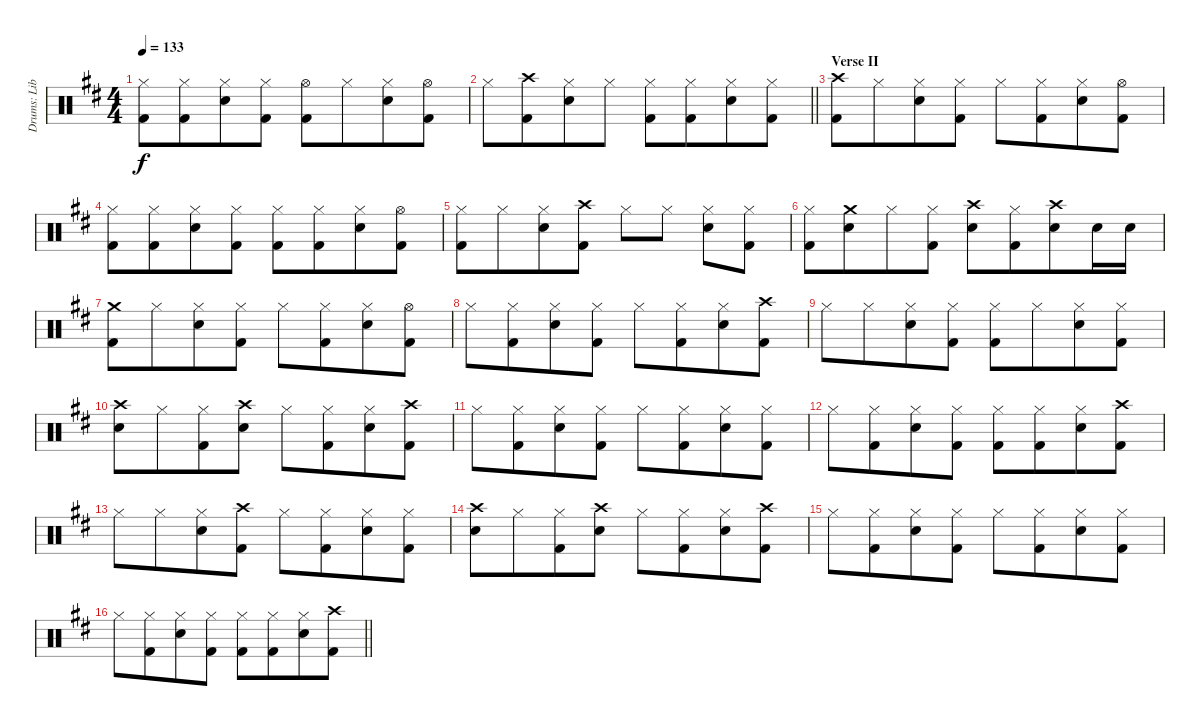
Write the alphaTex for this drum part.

\track ("Drums: Liberty" "Drums: Lib") {instrument percussion}
\staff {score}
\articulation defaults
\ts (4 4)
\tempo 133
\clef neutral
\ks d
("Hi-Hat (closed)" "Kick (hit) 2").8{dy f} ("Hi-Hat (closed)" "Kick (hit) 2").8{beam merge} ("Hi-Hat (closed)" "Electric Snare (hit)").8 ("Hi-Hat (closed)" "Kick (hit) 2").8 ("Hi-Hat (open)" "Kick (hit) 2").8 "Hi-Hat (closed)".8{beam merge} ("Hi-Hat (closed)" "Electric Snare (hit)").8 ("Hi-Hat (open)" "Kick (hit) 2").8 |
\barLineRight lightlight "Hi-Hat (closed)".8
("Crash high (hit)" "Kick (hit) 2").8{beam merge} ("Hi-Hat (closed)" "Electric Snare (hit)").8 "Hi-Hat (closed)".8 ("Hi-Hat (closed)" "Kick (hit) 2").8 ("Hi-Hat (closed)" "Kick (hit) 2").8{beam merge} ("Hi-Hat (closed)" "Electric Snare (hit)").8 ("Hi-Hat (closed)" "Kick (hit) 2").8 |
\section ("" "Verse II")
("Crash high (hit)" "Kick (hit) 2").8 "Hi-Hat (closed)".8{beam merge} ("Hi-Hat (closed)" "Electric Snare (hit)").8 ("Hi-Hat (closed)" "Kick (hit) 2").8 "Hi-Hat (closed)".8 ("Hi-Hat (closed)" "Kick (hit) 2").8{beam merge} ("Hi-Hat (closed)" "Electric Snare (hit)").8 ("Hi-Hat (open)" "Kick (hit) 2").8 |
("Hi-Hat (closed)" "Kick (hit) 2").8 ("Hi-Hat (closed)" "Kick (hit) 2").8{beam merge} ("Hi-Hat (closed)" "Electric Snare (hit)").8 ("Hi-Hat (closed)" "Kick (hit) 2").8 ("Hi-Hat (closed)" "Kick (hit) 2").8 ("Hi-Hat (closed)" "Kick (hit) 2").8{beam merge} ("Hi-Hat (closed)" "Electric Snare (hit)").8 ("Hi-Hat (open)" "Kick (hit) 2").8 |
("Hi-Hat (closed)" "Kick (hit) 2").8 "Hi-Hat (closed)".8{beam merge} ("Hi-Hat (closed)" "Electric Snare (hit)").8 ("Crash high (hit)" "Kick (hit) 2").8 "Hi-Hat (closed)".8 "Hi-Hat (closed)".8 ("Hi-Hat (closed)" "Electric Snare (hit)").8 ("Hi-Hat (closed)" "Kick (hit) 2").8 |
("Hi-Hat (closed)" "Kick (hit) 2").8 ("Crash medium (hit)" "Electric Snare (hit)").8{beam merge} "Hi-Hat (closed)".8 ("Hi-Hat (closed)" "Kick (hit) 2").8 ("Crash high (hit)" "Electric Snare (hit)").8 ("Hi-Hat (closed)" "Kick (hit) 2").8{beam merge} ("Crash high (hit)" "Electric Snare (hit)").8 "Electric Snare (hit)".16 "Electric Snare (hit)".16 |
("Crash medium (hit)" "Kick (hit) 2").8 "Hi-Hat (closed)".8{beam merge} ("Hi-Hat (closed)" "Electric Snare (hit)").8 ("Hi-Hat (closed)" "Kick (hit) 2").8 "Hi-Hat (closed)".8 ("Hi-Hat (closed)" "Kick (hit) 2").8{beam merge} ("Hi-Hat (closed)" "Electric Snare (hit)").8 ("Hi-Hat (open)" "Kick (hit) 2").8 |
"Hi-Hat (closed)".8 ("Hi-Hat (closed)" "Kick (hit) 2").8{beam merge} ("Hi-Hat (closed)" "Electric Snare (hit)").8 ("Hi-Hat (closed)" "Kick (hit) 2").8 "Hi-Hat (closed)".8 ("Hi-Hat (closed)" "Kick (hit) 2").8{beam merge} ("Hi-Hat (closed)" "Electric Snare (hit)").8 ("Crash high (hit)" "Kick (hit) 2").8 |
"Hi-Hat (closed)".8 "Hi-Hat (closed)".8{beam merge} ("Hi-Hat (closed)" "Electric Snare (hit)").8 ("Hi-Hat (closed)" "Kick (hit) 2").8 ("Hi-Hat (closed)" "Kick (hit) 2").8 "Hi-Hat (closed)".8{beam merge} ("Hi-Hat (closed)" "Electric Snare (hit)").8 ("Hi-Hat (closed)" "Kick (hit) 2").8 |
("Crash high (hit)" "Electric Snare (hit)").8 "Hi-Hat (closed)".8{beam merge} ("Hi-Hat (closed)" "Kick (hit) 2").8 ("Crash high (hit)" "Electric Snare (hit)").8 "Hi-Hat (closed)".8 ("Hi-Hat (closed)" "Kick (hit) 2").8{beam merge} ("Hi-Hat (closed)" "Electric Snare (hit)").8 ("Crash high (hit)" "Kick (hit) 2").8 |
"Hi-Hat (closed)".8 ("Hi-Hat (closed)" "Kick (hit) 2").8{beam merge} ("Hi-Hat (closed)" "Electric Snare (hit)").8 ("Hi-Hat (closed)" "Kick (hit) 2").8 "Hi-Hat (closed)".8 ("Hi-Hat (closed)" "Kick (hit) 2").8{beam merge} ("Hi-Hat (closed)" "Electric Snare (hit)").8 ("Hi-Hat (closed)" "Kick (hit) 2").8 |
"Hi-Hat (closed)".8 ("Hi-Hat (closed)" "Kick (hit) 2").8{beam merge} ("Hi-Hat (closed)" "Electric Snare (hit)").8 ("Hi-Hat (closed)" "Kick (hit) 2").8 ("Hi-Hat (closed)" "Kick (hit) 2").8 ("Hi-Hat (closed)" "Kick (hit) 2").8{beam merge} ("Hi-Hat (closed)" "Electric Snare (hit)").8 ("Crash high (hit)" "Kick (hit) 2").8 |
"Hi-Hat (closed)".8 "Hi-Hat (closed)".8{beam merge} ("Hi-Hat (closed)" "Electric Snare (hit)").8 ("Crash high (hit)" "Kick (hit) 2").8 "Hi-Hat (closed)".8 ("Hi-Hat (closed)" "Kick (hit) 2").8{beam merge} ("Hi-Hat (closed)" "Electric Snare (hit)").8 ("Hi-Hat (closed)" "Kick (hit) 2").8 |
("Crash high (hit)" "Electric Snare (hit)").8 "Hi-Hat (closed)".8{beam merge} ("Hi-Hat (closed)" "Kick (hit) 2").8 ("Crash high (hit)" "Electric Snare (hit)").8 "Hi-Hat (closed)".8 ("Hi-Hat (closed)" "Kick (hit) 2").8{beam merge} ("Hi-Hat (closed)" "Electric Snare (hit)").8 ("Crash high (hit)" "Kick (hit) 2").8 |
"Hi-Hat (closed)".8 ("Hi-Hat (closed)" "Kick (hit) 2").8{beam merge} ("Hi-Hat (closed)" "Electric Snare (hit)").8 ("Hi-Hat (closed)" "Kick (hit) 2").8 "Hi-Hat (closed)".8 ("Hi-Hat (closed)" "Kick (hit) 2").8{beam merge} ("Hi-Hat (closed)" "Electric Snare (hit)").8 ("Hi-Hat (closed)" "Kick (hit) 2").8 |
\barLineRight lightlight "Hi-Hat (closed)".8
("Hi-Hat (closed)" "Kick (hit) 2").8{beam merge} ("Hi-Hat (closed)" "Electric Snare (hit)").8 ("Hi-Hat (closed)" "Kick (hit) 2").8 ("Hi-Hat (closed)" "Kick (hit) 2").8 ("Hi-Hat (closed)" "Kick (hit) 2").8{beam merge} ("Hi-Hat (closed)" "Electric Snare (hit)").8 ("Crash high (hit)" "Kick (hit) 2").8
